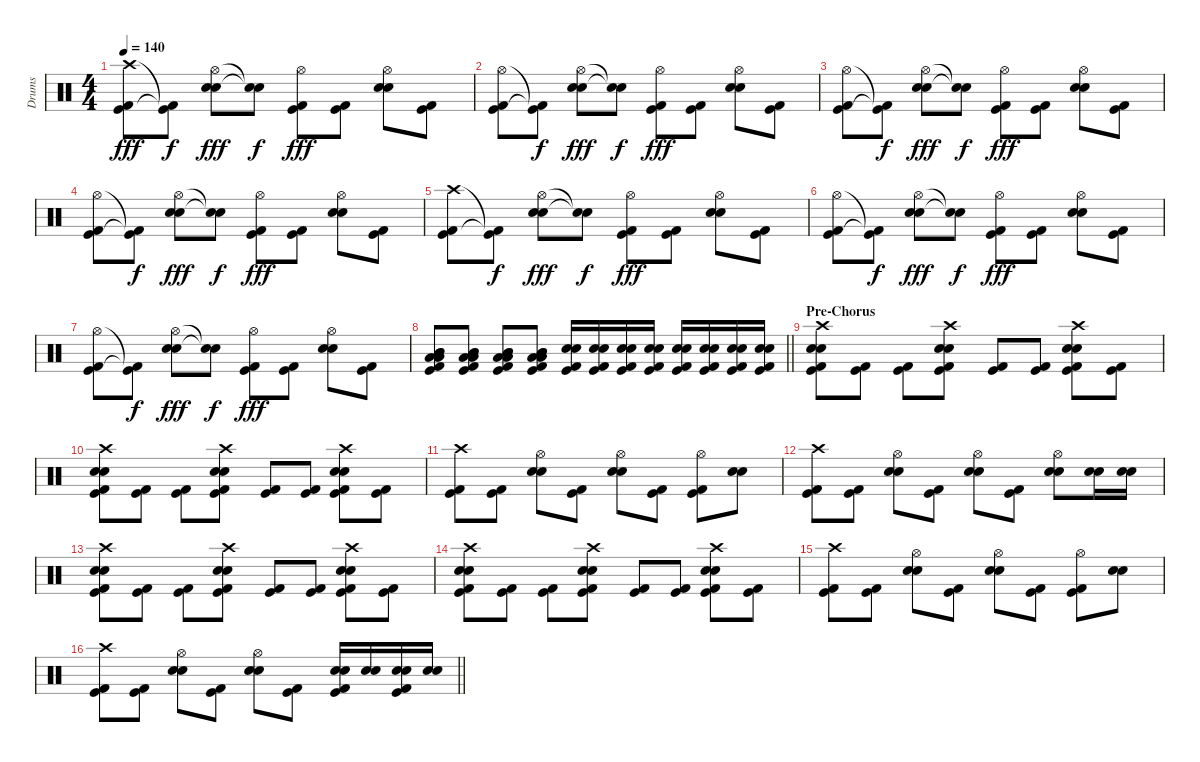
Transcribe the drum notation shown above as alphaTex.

\track ("Drums" "Drums") {instrument percussion}
\staff {score}
\articulation defaults
\ts (4 4)
\tempo 140
\clef neutral
\ks c
("Crash high (hit)" "Kick (hit)" "Kick (hit) 2").8{dy fff} ("Kick (hit)"{t} "Kick (hit) 2"{t}).8{dy f} ("Hi-Hat (open)" "Electric Snare (hit)" "Electric Snare (hit)").8{dy fff} ("Electric Snare (hit)"{t} "Electric Snare (hit)"{t}).8{dy f} ("Hi-Hat (open)" "Kick (hit)" "Kick (hit) 2").8{dy fff} ("Kick (hit)" "Kick (hit) 2").8 ("Hi-Hat (open)" "Electric Snare (hit)" "Electric Snare (hit)").8 ("Kick (hit)" "Kick (hit) 2").8 |
("Hi-Hat (open)" "Kick (hit)" "Kick (hit) 2").8 ("Kick (hit)"{t} "Kick (hit) 2"{t}).8{dy f} ("Hi-Hat (open)" "Electric Snare (hit)" "Electric Snare (hit)").8{dy fff} ("Electric Snare (hit)"{t} "Electric Snare (hit)"{t}).8{dy f} ("Hi-Hat (open)" "Kick (hit)" "Kick (hit) 2").8{dy fff} ("Kick (hit)" "Kick (hit) 2").8 ("Hi-Hat (open)" "Electric Snare (hit)" "Electric Snare (hit)").8 ("Kick (hit)" "Kick (hit) 2").8 |
("Hi-Hat (open)" "Kick (hit)" "Kick (hit) 2").8 ("Kick (hit)"{t} "Kick (hit) 2"{t}).8{dy f} ("Hi-Hat (open)" "Electric Snare (hit)" "Electric Snare (hit)").8{dy fff} ("Electric Snare (hit)"{t} "Electric Snare (hit)"{t}).8{dy f} ("Hi-Hat (open)" "Kick (hit)" "Kick (hit) 2").8{dy fff} ("Kick (hit)" "Kick (hit) 2").8 ("Hi-Hat (open)" "Electric Snare (hit)" "Electric Snare (hit)").8 ("Kick (hit)" "Kick (hit) 2").8 |
("Hi-Hat (open)" "Kick (hit)" "Kick (hit) 2").8 ("Kick (hit)"{t} "Kick (hit) 2"{t}).8{dy f} ("Hi-Hat (open)" "Electric Snare (hit)" "Electric Snare (hit)").8{dy fff} ("Electric Snare (hit)"{t} "Electric Snare (hit)"{t}).8{dy f} ("Hi-Hat (open)" "Kick (hit)" "Kick (hit) 2").8{dy fff} ("Kick (hit)" "Kick (hit) 2").8 ("Hi-Hat (open)" "Electric Snare (hit)" "Electric Snare (hit)").8 ("Kick (hit)" "Kick (hit) 2").8 |
("Crash high (hit)" "Kick (hit)" "Kick (hit) 2").8 ("Kick (hit)"{t} "Kick (hit) 2"{t}).8{dy f} ("Hi-Hat (open)" "Electric Snare (hit)" "Electric Snare (hit)").8{dy fff} ("Electric Snare (hit)"{t} "Electric Snare (hit)"{t}).8{dy f} ("Hi-Hat (open)" "Kick (hit)" "Kick (hit) 2").8{dy fff} ("Kick (hit)" "Kick (hit) 2").8 ("Hi-Hat (open)" "Electric Snare (hit)" "Electric Snare (hit)").8 ("Kick (hit)" "Kick (hit) 2").8 |
("Hi-Hat (open)" "Kick (hit)" "Kick (hit) 2").8 ("Kick (hit)"{t} "Kick (hit) 2"{t}).8{dy f} ("Hi-Hat (open)" "Electric Snare (hit)" "Electric Snare (hit)").8{dy fff} ("Electric Snare (hit)"{t} "Electric Snare (hit)"{t}).8{dy f} ("Hi-Hat (open)" "Kick (hit)" "Kick (hit) 2").8{dy fff} ("Kick (hit)" "Kick (hit) 2").8 ("Hi-Hat (open)" "Electric Snare (hit)" "Electric Snare (hit)").8 ("Kick (hit)" "Kick (hit) 2").8 |
("Hi-Hat (open)" "Kick (hit)" "Kick (hit) 2").8 ("Kick (hit)"{t} "Kick (hit) 2"{t}).8{dy f} ("Hi-Hat (open)" "Electric Snare (hit)" "Electric Snare (hit)").8{dy fff} ("Electric Snare (hit)"{t} "Electric Snare (hit)"{t}).8{dy f} ("Hi-Hat (open)" "Kick (hit)" "Kick (hit) 2").8{dy fff} ("Kick (hit)" "Kick (hit) 2").8 ("Hi-Hat (open)" "Electric Snare (hit)" "Electric Snare (hit)").8 ("Kick (hit)" "Kick (hit) 2").8 |
\barLineRight lightlight
("Low Tom (hit)" "Low Tom (hit)" "Mid Tom (hit)" "Mid Tom (hit)" "Kick (hit)" "Kick (hit) 2").8 ("Low Tom (hit)" "Low Tom (hit)" "Mid Tom (hit)" "Mid Tom (hit)" "Kick (hit)" "Kick (hit) 2").8 ("Low Tom (hit)" "Low Tom (hit)" "Mid Tom (hit)" "Mid Tom (hit)" "Kick (hit)" "Kick (hit) 2").8 ("Low Tom (hit)" "Low Tom (hit)" "Mid Tom (hit)" "Mid Tom (hit)" "Kick (hit)" "Kick (hit) 2").8 ("Electric Snare (hit)" "Electric Snare (hit)" "Kick (hit)" "Kick (hit) 2").16 ("Electric Snare (hit)" "Electric Snare (hit)" "Kick (hit)" "Kick (hit) 2").16 ("Electric Snare (hit)" "Electric Snare (hit)" "Kick (hit)" "Kick (hit) 2").16 ("Electric Snare (hit)" "Electric Snare (hit)" "Kick (hit)" "Kick (hit) 2").16 ("Electric Snare (hit)" "Electric Snare (hit)" "Kick (hit)" "Kick (hit) 2").16 ("Electric Snare (hit)" "Electric Snare (hit)" "Kick (hit)" "Kick (hit) 2").16 ("Electric Snare (hit)" "Electric Snare (hit)" "Kick (hit)" "Kick (hit) 2").16 ("Electric Snare (hit)" "Electric Snare (hit)" "Kick (hit)" "Kick (hit) 2").16 |
\section ("" "Pre-Chorus")
("Crash high (hit)" "Electric Snare (hit)" "Electric Snare (hit)" "Kick (hit)" "Kick (hit) 2").8 ("Kick (hit)" "Kick (hit) 2").8 ("Kick (hit)" "Kick (hit) 2").8 ("Crash high (hit)" "Electric Snare (hit)" "Electric Snare (hit)" "Kick (hit)" "Kick (hit) 2").8 ("Kick (hit)" "Kick (hit) 2").8 ("Kick (hit)" "Kick (hit) 2").8 ("Crash high (hit)" "Electric Snare (hit)" "Electric Snare (hit)" "Kick (hit)" "Kick (hit) 2").8 ("Kick (hit)" "Kick (hit) 2").8 |
("Crash high (hit)" "Electric Snare (hit)" "Electric Snare (hit)" "Kick (hit)" "Kick (hit) 2").8 ("Kick (hit)" "Kick (hit) 2").8 ("Kick (hit)" "Kick (hit) 2").8 ("Crash high (hit)" "Electric Snare (hit)" "Electric Snare (hit)" "Kick (hit)" "Kick (hit) 2").8 ("Kick (hit)" "Kick (hit) 2").8 ("Kick (hit)" "Kick (hit) 2").8 ("Crash high (hit)" "Electric Snare (hit)" "Electric Snare (hit)" "Kick (hit)" "Kick (hit) 2").8 ("Kick (hit)" "Kick (hit) 2").8 |
("Crash high (hit)" "Kick (hit)" "Kick (hit) 2").8 ("Kick (hit)" "Kick (hit) 2").8 ("Hi-Hat (open)" "Electric Snare (hit)" "Electric Snare (hit)").8 ("Kick (hit)" "Kick (hit) 2").8 ("Hi-Hat (open)" "Electric Snare (hit)" "Electric Snare (hit)").8 ("Kick (hit)" "Kick (hit) 2").8 ("Hi-Hat (open)" "Kick (hit)" "Kick (hit) 2").8 ("Electric Snare (hit)" "Electric Snare (hit)").8 |
("Crash high (hit)" "Kick (hit)" "Kick (hit) 2").8 ("Kick (hit)" "Kick (hit) 2").8 ("Hi-Hat (open)" "Electric Snare (hit)" "Electric Snare (hit)").8 ("Kick (hit)" "Kick (hit) 2").8 ("Hi-Hat (open)" "Electric Snare (hit)" "Electric Snare (hit)").8 ("Kick (hit)" "Kick (hit) 2").8 ("Hi-Hat (open)" "Electric Snare (hit)" "Electric Snare (hit)").8 ("Electric Snare (hit)" "Electric Snare (hit)").16 ("Electric Snare (hit)" "Electric Snare (hit)").16 |
("Crash high (hit)" "Electric Snare (hit)" "Electric Snare (hit)" "Kick (hit)" "Kick (hit) 2").8 ("Kick (hit)" "Kick (hit) 2").8 ("Kick (hit)" "Kick (hit) 2").8 ("Crash high (hit)" "Electric Snare (hit)" "Electric Snare (hit)" "Kick (hit)" "Kick (hit) 2").8 ("Kick (hit)" "Kick (hit) 2").8 ("Kick (hit)" "Kick (hit) 2").8 ("Crash high (hit)" "Electric Snare (hit)" "Electric Snare (hit)" "Kick (hit)" "Kick (hit) 2").8 ("Kick (hit)" "Kick (hit) 2").8 |
("Crash high (hit)" "Electric Snare (hit)" "Electric Snare (hit)" "Kick (hit)" "Kick (hit) 2").8 ("Kick (hit)" "Kick (hit) 2").8 ("Kick (hit)" "Kick (hit) 2").8 ("Crash high (hit)" "Electric Snare (hit)" "Electric Snare (hit)" "Kick (hit)" "Kick (hit) 2").8 ("Kick (hit)" "Kick (hit) 2").8 ("Kick (hit)" "Kick (hit) 2").8 ("Crash high (hit)" "Electric Snare (hit)" "Electric Snare (hit)" "Kick (hit)" "Kick (hit) 2").8 ("Kick (hit)" "Kick (hit) 2").8 |
("Crash high (hit)" "Kick (hit)" "Kick (hit) 2").8 ("Kick (hit)" "Kick (hit) 2").8 ("Hi-Hat (open)" "Electric Snare (hit)" "Electric Snare (hit)").8 ("Kick (hit)" "Kick (hit) 2").8 ("Hi-Hat (open)" "Electric Snare (hit)" "Electric Snare (hit)").8 ("Kick (hit)" "Kick (hit) 2").8 ("Hi-Hat (open)" "Kick (hit)" "Kick (hit) 2").8 ("Electric Snare (hit)" "Electric Snare (hit)").8 |
\barLineRight lightlight
("Crash high (hit)" "Kick (hit)" "Kick (hit) 2").8 ("Kick (hit)" "Kick (hit) 2").8 ("Hi-Hat (open)" "Electric Snare (hit)" "Electric Snare (hit)").8 ("Kick (hit)" "Kick (hit) 2").8 ("Hi-Hat (open)" "Electric Snare (hit)" "Electric Snare (hit)").8 ("Kick (hit)" "Kick (hit) 2").8 ("Electric Snare (hit)" "Electric Snare (hit)" "Kick (hit)" "Kick (hit) 2").16 ("Electric Snare (hit)" "Electric Snare (hit)").16 ("Electric Snare (hit)" "Electric Snare (hit)" "Kick (hit)" "Kick (hit) 2").16 ("Electric Snare (hit)" "Electric Snare (hit)").16
